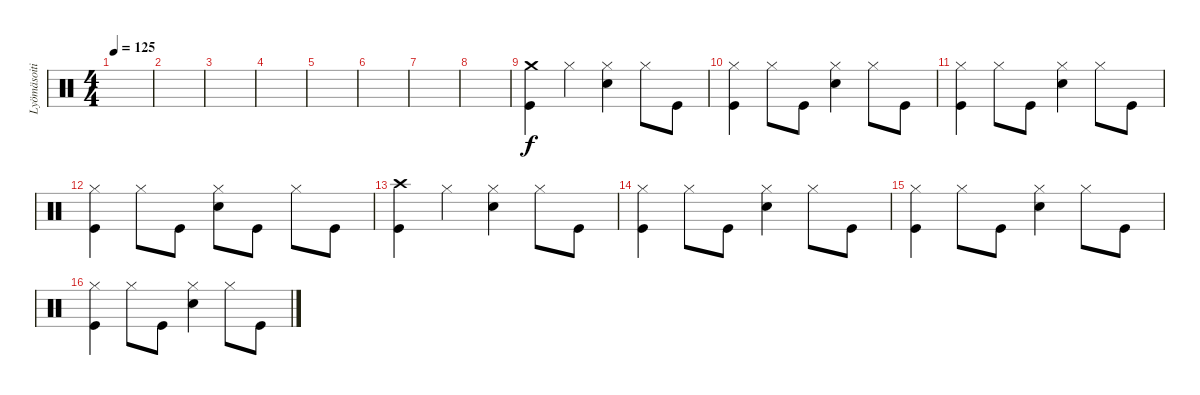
\track ("Lyömäsoitin" "Lyömäsoiti") {instrument percussion}
\staff {score}
\articulation defaults
\ts (4 4)
\tempo 125
\clef neutral
\ks c
|
|
|
|
|
|
|
|
("Crash medium (hit)" "Kick (hit)").4 "Hi-Hat (closed)".4 ("Hi-Hat (closed)" "Snare (hit) 2").4 "Hi-Hat (closed)".8 "Kick (hit)".8 |
("Hi-Hat (closed)" "Kick (hit)").4 "Hi-Hat (closed)".8 "Kick (hit)".8 ("Hi-Hat (closed)" "Snare (hit) 2").4 "Hi-Hat (closed)".8 "Kick (hit)".8 |
("Hi-Hat (closed)" "Kick (hit)").4 "Hi-Hat (closed)".8 "Kick (hit)".8 ("Hi-Hat (closed)" "Snare (hit) 2").4 "Hi-Hat (closed)".8 "Kick (hit)".8 |
("Hi-Hat (closed)" "Kick (hit)").4 "Hi-Hat (closed)".8 "Kick (hit)".8 ("Hi-Hat (closed)" "Snare (hit) 2").8 "Kick (hit)".8 "Hi-Hat (closed)".8 "Kick (hit)".8 |
("Crash high (hit)" "Kick (hit)").4 "Hi-Hat (closed)".4 ("Hi-Hat (closed)" "Snare (hit) 2").4 "Hi-Hat (closed)".8 "Kick (hit)".8 |
("Hi-Hat (closed)" "Kick (hit)").4 "Hi-Hat (closed)".8 "Kick (hit)".8 ("Hi-Hat (closed)" "Snare (hit) 2").4 "Hi-Hat (closed)".8 "Kick (hit)".8 |
("Hi-Hat (closed)" "Kick (hit)").4 "Hi-Hat (closed)".8 "Kick (hit)".8 ("Hi-Hat (closed)" "Snare (hit) 2").4 "Hi-Hat (closed)".8 "Kick (hit)".8 |
("Hi-Hat (closed)" "Kick (hit)").4 "Hi-Hat (closed)".8 "Kick (hit)".8 ("Hi-Hat (closed)" "Snare (hit) 2").4 "Hi-Hat (closed)".8 "Kick (hit)".8
